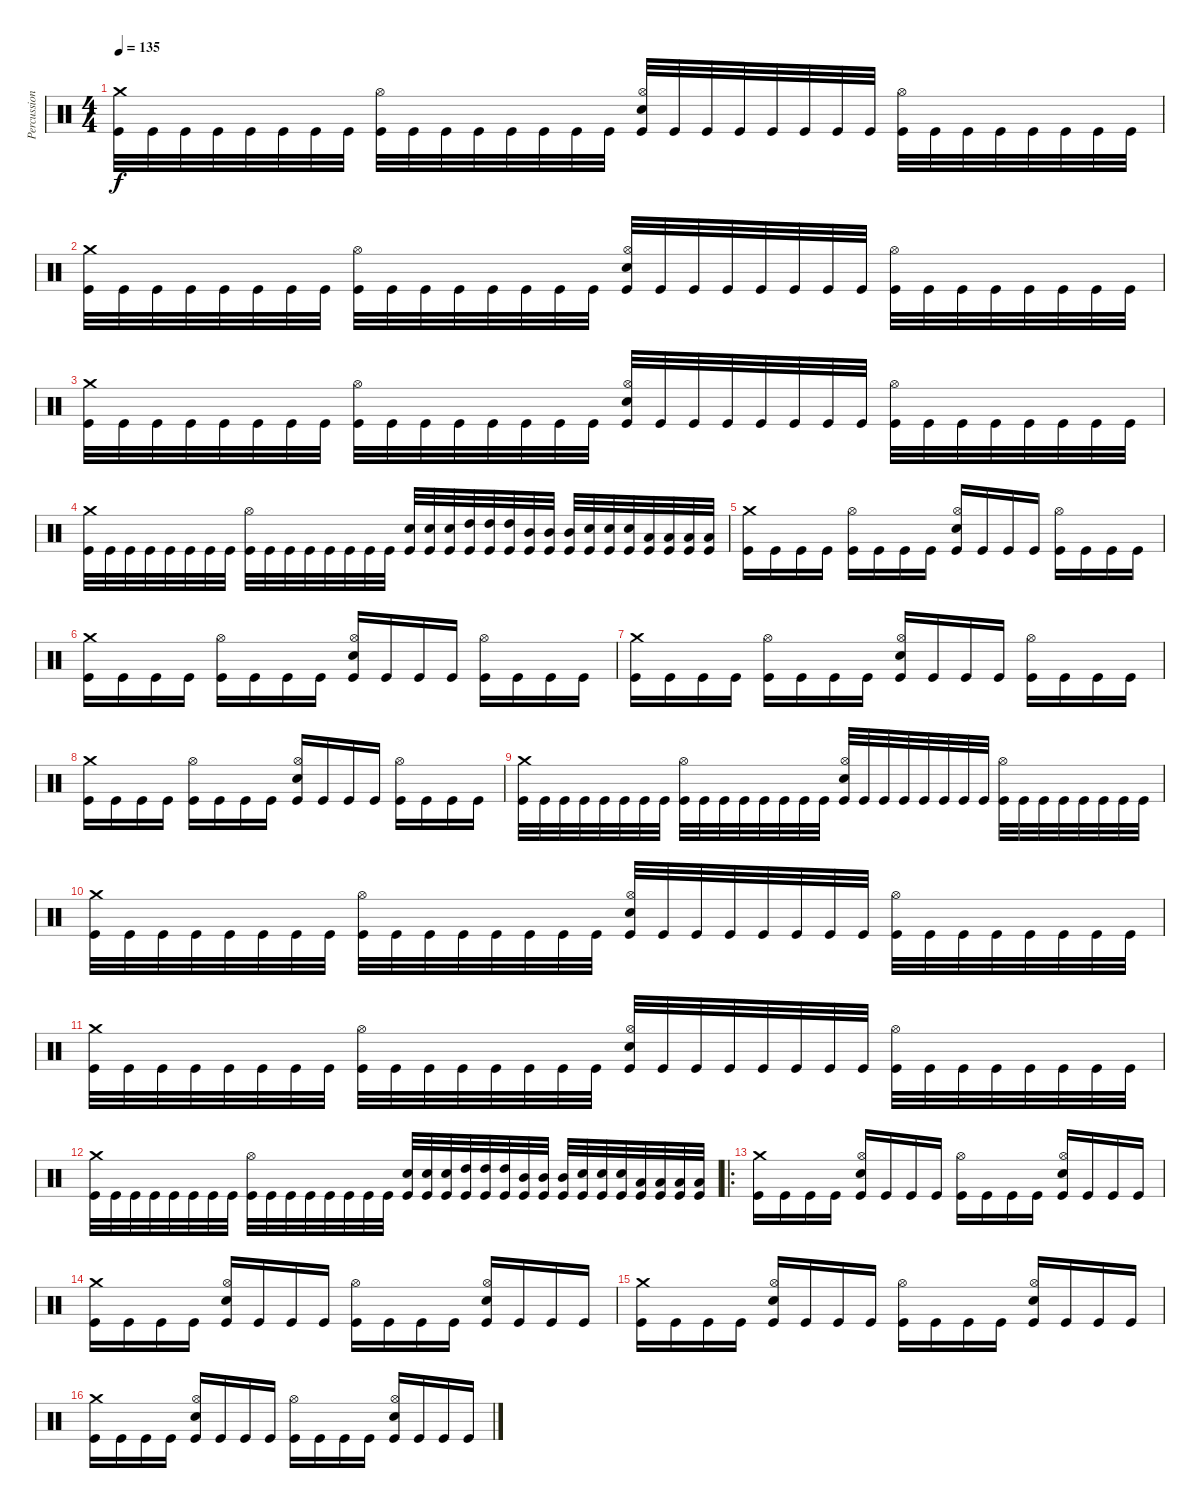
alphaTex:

\track ("Percussion" "Percussion") {instrument percussion}
\staff {score}
\articulation defaults
\ts (4 4)
\tempo 135
\clef neutral
\ks c
("Crash medium (hit)" "Kick (hit)").32{dy f} "Kick (hit)".32 "Kick (hit)".32 "Kick (hit)".32 "Kick (hit)".32 "Kick (hit)".32 "Kick (hit)".32 "Kick (hit)".32 ("Hi-Hat (open)" "Kick (hit)").32 "Kick (hit)".32 "Kick (hit)".32 "Kick (hit)".32 "Kick (hit)".32 "Kick (hit)".32 "Kick (hit)".32 "Kick (hit)".32 ("Hi-Hat (open)" "Electric Snare (hit)" "Kick (hit)").32 "Kick (hit)".32 "Kick (hit)".32 "Kick (hit)".32 "Kick (hit)".32 "Kick (hit)".32 "Kick (hit)".32 "Kick (hit)".32 ("Hi-Hat (open)" "Kick (hit)").32 "Kick (hit)".32 "Kick (hit)".32 "Kick (hit)".32 "Kick (hit)".32 "Kick (hit)".32 "Kick (hit)".32 "Kick (hit)".32 |
("Crash medium (hit)" "Kick (hit)").32 "Kick (hit)".32 "Kick (hit)".32 "Kick (hit)".32 "Kick (hit)".32 "Kick (hit)".32 "Kick (hit)".32 "Kick (hit)".32 ("Hi-Hat (open)" "Kick (hit)").32 "Kick (hit)".32 "Kick (hit)".32 "Kick (hit)".32 "Kick (hit)".32 "Kick (hit)".32 "Kick (hit)".32 "Kick (hit)".32 ("Hi-Hat (open)" "Electric Snare (hit)" "Kick (hit)").32 "Kick (hit)".32 "Kick (hit)".32 "Kick (hit)".32 "Kick (hit)".32 "Kick (hit)".32 "Kick (hit)".32 "Kick (hit)".32 ("Hi-Hat (open)" "Kick (hit)").32 "Kick (hit)".32 "Kick (hit)".32 "Kick (hit)".32 "Kick (hit)".32 "Kick (hit)".32 "Kick (hit)".32 "Kick (hit)".32 |
("Crash medium (hit)" "Kick (hit)").32 "Kick (hit)".32 "Kick (hit)".32 "Kick (hit)".32 "Kick (hit)".32 "Kick (hit)".32 "Kick (hit)".32 "Kick (hit)".32 ("Hi-Hat (open)" "Kick (hit)").32 "Kick (hit)".32 "Kick (hit)".32 "Kick (hit)".32 "Kick (hit)".32 "Kick (hit)".32 "Kick (hit)".32 "Kick (hit)".32 ("Hi-Hat (open)" "Electric Snare (hit)" "Kick (hit)").32 "Kick (hit)".32 "Kick (hit)".32 "Kick (hit)".32 "Kick (hit)".32 "Kick (hit)".32 "Kick (hit)".32 "Kick (hit)".32 ("Hi-Hat (open)" "Kick (hit)").32 "Kick (hit)".32 "Kick (hit)".32 "Kick (hit)".32 "Kick (hit)".32 "Kick (hit)".32 "Kick (hit)".32 "Kick (hit)".32 |
("Crash medium (hit)" "Kick (hit)").32 "Kick (hit)".32 "Kick (hit)".32 "Kick (hit)".32 "Kick (hit)".32 "Kick (hit)".32 "Kick (hit)".32 "Kick (hit)".32 ("Hi-Hat (open)" "Kick (hit)").32 "Kick (hit)".32 "Kick (hit)".32 "Kick (hit)".32 "Kick (hit)".32 "Kick (hit)".32 "Kick (hit)".32 "Kick (hit)".32 ("Electric Snare (hit)" "Kick (hit)").32 ("Electric Snare (hit)" "Kick (hit)").32 ("Electric Snare (hit)" "Kick (hit)").32 ("High Tom (hit)" "Kick (hit)").32 ("High Tom (hit)" "Kick (hit)").32 ("High Tom (hit)" "Kick (hit)").32 ("Mid Tom (hit)" "Kick (hit)").32 ("Mid Tom (hit)" "Kick (hit)").32 ("Mid Tom (hit)" "Kick (hit)").32 ("Electric Snare (hit)" "Kick (hit)").32 ("Electric Snare (hit)" "Kick (hit)").32 ("Electric Snare (hit)" "Kick (hit)").32 ("Low Tom (hit)" "Kick (hit)").32 ("Low Tom (hit)" "Kick (hit)").32 ("Low Tom (hit)" "Kick (hit)").32 ("Low Floor Tom (hit)" "Kick (hit)").32 |
("Crash medium (hit)" "Kick (hit)").16 "Kick (hit)".16 "Kick (hit)".16 "Kick (hit)".16 ("Hi-Hat (open)" "Kick (hit)").16 "Kick (hit)".16 "Kick (hit)".16 "Kick (hit)".16 ("Hi-Hat (open)" "Electric Snare (hit)" "Kick (hit)").16 "Kick (hit)".16 "Kick (hit)".16 "Kick (hit)".16 ("Hi-Hat (open)" "Kick (hit)").16 "Kick (hit)".16 "Kick (hit)".16 "Kick (hit)".16 |
("Crash medium (hit)" "Kick (hit)").16 "Kick (hit)".16 "Kick (hit)".16 "Kick (hit)".16 ("Hi-Hat (open)" "Kick (hit)").16 "Kick (hit)".16 "Kick (hit)".16 "Kick (hit)".16 ("Hi-Hat (open)" "Electric Snare (hit)" "Kick (hit)").16 "Kick (hit)".16 "Kick (hit)".16 "Kick (hit)".16 ("Hi-Hat (open)" "Kick (hit)").16 "Kick (hit)".16 "Kick (hit)".16 "Kick (hit)".16 |
("Crash medium (hit)" "Kick (hit)").16 "Kick (hit)".16 "Kick (hit)".16 "Kick (hit)".16 ("Hi-Hat (open)" "Kick (hit)").16 "Kick (hit)".16 "Kick (hit)".16 "Kick (hit)".16 ("Hi-Hat (open)" "Electric Snare (hit)" "Kick (hit)").16 "Kick (hit)".16 "Kick (hit)".16 "Kick (hit)".16 ("Hi-Hat (open)" "Kick (hit)").16 "Kick (hit)".16 "Kick (hit)".16 "Kick (hit)".16 |
("Crash medium (hit)" "Kick (hit)").16 "Kick (hit)".16 "Kick (hit)".16 "Kick (hit)".16 ("Hi-Hat (open)" "Kick (hit)").16 "Kick (hit)".16 "Kick (hit)".16 "Kick (hit)".16 ("Hi-Hat (open)" "Electric Snare (hit)" "Kick (hit)").16 "Kick (hit)".16 "Kick (hit)".16 "Kick (hit)".16 ("Hi-Hat (open)" "Kick (hit)").16 "Kick (hit)".16 "Kick (hit)".16 "Kick (hit)".16 |
("Crash medium (hit)" "Kick (hit)").32 "Kick (hit)".32 "Kick (hit)".32 "Kick (hit)".32 "Kick (hit)".32 "Kick (hit)".32 "Kick (hit)".32 "Kick (hit)".32 ("Hi-Hat (open)" "Kick (hit)").32 "Kick (hit)".32 "Kick (hit)".32 "Kick (hit)".32 "Kick (hit)".32 "Kick (hit)".32 "Kick (hit)".32 "Kick (hit)".32 ("Hi-Hat (open)" "Electric Snare (hit)" "Kick (hit)").32 "Kick (hit)".32 "Kick (hit)".32 "Kick (hit)".32 "Kick (hit)".32 "Kick (hit)".32 "Kick (hit)".32 "Kick (hit)".32 ("Hi-Hat (open)" "Kick (hit)").32 "Kick (hit)".32 "Kick (hit)".32 "Kick (hit)".32 "Kick (hit)".32 "Kick (hit)".32 "Kick (hit)".32 "Kick (hit)".32 |
("Crash medium (hit)" "Kick (hit)").32 "Kick (hit)".32 "Kick (hit)".32 "Kick (hit)".32 "Kick (hit)".32 "Kick (hit)".32 "Kick (hit)".32 "Kick (hit)".32 ("Hi-Hat (open)" "Kick (hit)").32 "Kick (hit)".32 "Kick (hit)".32 "Kick (hit)".32 "Kick (hit)".32 "Kick (hit)".32 "Kick (hit)".32 "Kick (hit)".32 ("Hi-Hat (open)" "Electric Snare (hit)" "Kick (hit)").32 "Kick (hit)".32 "Kick (hit)".32 "Kick (hit)".32 "Kick (hit)".32 "Kick (hit)".32 "Kick (hit)".32 "Kick (hit)".32 ("Hi-Hat (open)" "Kick (hit)").32 "Kick (hit)".32 "Kick (hit)".32 "Kick (hit)".32 "Kick (hit)".32 "Kick (hit)".32 "Kick (hit)".32 "Kick (hit)".32 |
("Crash medium (hit)" "Kick (hit)").32 "Kick (hit)".32 "Kick (hit)".32 "Kick (hit)".32 "Kick (hit)".32 "Kick (hit)".32 "Kick (hit)".32 "Kick (hit)".32 ("Hi-Hat (open)" "Kick (hit)").32 "Kick (hit)".32 "Kick (hit)".32 "Kick (hit)".32 "Kick (hit)".32 "Kick (hit)".32 "Kick (hit)".32 "Kick (hit)".32 ("Hi-Hat (open)" "Electric Snare (hit)" "Kick (hit)").32 "Kick (hit)".32 "Kick (hit)".32 "Kick (hit)".32 "Kick (hit)".32 "Kick (hit)".32 "Kick (hit)".32 "Kick (hit)".32 ("Hi-Hat (open)" "Kick (hit)").32 "Kick (hit)".32 "Kick (hit)".32 "Kick (hit)".32 "Kick (hit)".32 "Kick (hit)".32 "Kick (hit)".32 "Kick (hit)".32 |
("Crash medium (hit)" "Kick (hit)").32 "Kick (hit)".32 "Kick (hit)".32 "Kick (hit)".32 "Kick (hit)".32 "Kick (hit)".32 "Kick (hit)".32 "Kick (hit)".32 ("Hi-Hat (open)" "Kick (hit)").32 "Kick (hit)".32 "Kick (hit)".32 "Kick (hit)".32 "Kick (hit)".32 "Kick (hit)".32 "Kick (hit)".32 "Kick (hit)".32 ("Electric Snare (hit)" "Kick (hit)").32 ("Electric Snare (hit)" "Kick (hit)").32 ("Electric Snare (hit)" "Kick (hit)").32 ("High Tom (hit)" "Kick (hit)").32 ("High Tom (hit)" "Kick (hit)").32 ("High Tom (hit)" "Kick (hit)").32 ("Mid Tom (hit)" "Kick (hit)").32 ("Mid Tom (hit)" "Kick (hit)").32 ("Mid Tom (hit)" "Kick (hit)").32 ("Electric Snare (hit)" "Kick (hit)").32 ("Electric Snare (hit)" "Kick (hit)").32 ("Electric Snare (hit)" "Kick (hit)").32 ("Low Tom (hit)" "Kick (hit)").32 ("Low Tom (hit)" "Kick (hit)").32 ("Low Tom (hit)" "Kick (hit)").32 ("Low Floor Tom (hit)" "Kick (hit)").32 |
\ro
("Crash medium (hit)" "Kick (hit)").16 "Kick (hit)".16 "Kick (hit)".16 "Kick (hit)".16 ("Hi-Hat (open)" "Electric Snare (hit)" "Kick (hit)").16 "Kick (hit)".16 "Kick (hit)".16 "Kick (hit)".16 ("Hi-Hat (open)" "Kick (hit)").16 "Kick (hit)".16 "Kick (hit)".16 "Kick (hit)".16 ("Hi-Hat (open)" "Electric Snare (hit)" "Kick (hit)").16 "Kick (hit)".16 "Kick (hit)".16 "Kick (hit)".16 |
("Crash medium (hit)" "Kick (hit)").16 "Kick (hit)".16 "Kick (hit)".16 "Kick (hit)".16 ("Hi-Hat (open)" "Electric Snare (hit)" "Kick (hit)").16 "Kick (hit)".16 "Kick (hit)".16 "Kick (hit)".16 ("Hi-Hat (open)" "Kick (hit)").16 "Kick (hit)".16 "Kick (hit)".16 "Kick (hit)".16 ("Hi-Hat (open)" "Electric Snare (hit)" "Kick (hit)").16 "Kick (hit)".16 "Kick (hit)".16 "Kick (hit)".16 |
("Crash medium (hit)" "Kick (hit)").16 "Kick (hit)".16 "Kick (hit)".16 "Kick (hit)".16 ("Hi-Hat (open)" "Electric Snare (hit)" "Kick (hit)").16 "Kick (hit)".16 "Kick (hit)".16 "Kick (hit)".16 ("Hi-Hat (open)" "Kick (hit)").16 "Kick (hit)".16 "Kick (hit)".16 "Kick (hit)".16 ("Hi-Hat (open)" "Electric Snare (hit)" "Kick (hit)").16 "Kick (hit)".16 "Kick (hit)".16 "Kick (hit)".16 |
("Crash medium (hit)" "Kick (hit)").16 "Kick (hit)".16 "Kick (hit)".16 "Kick (hit)".16 ("Hi-Hat (open)" "Electric Snare (hit)" "Kick (hit)").16 "Kick (hit)".16 "Kick (hit)".16 "Kick (hit)".16 ("Hi-Hat (open)" "Kick (hit)").16 "Kick (hit)".16 "Kick (hit)".16 "Kick (hit)".16 ("Hi-Hat (open)" "Electric Snare (hit)" "Kick (hit)").16 "Kick (hit)".16 "Kick (hit)".16 "Kick (hit)".16
